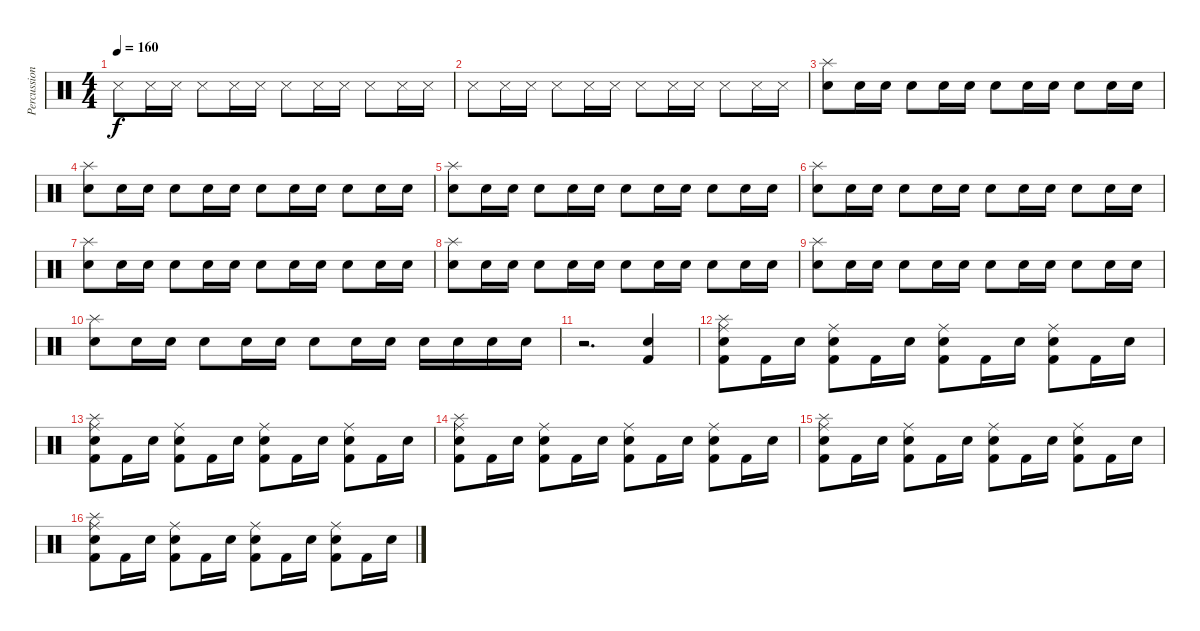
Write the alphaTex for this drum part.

\track ("Percussions" "Percussion") {instrument percussion}
\staff {score}
\articulation defaults
\ts (4 4)
\tempo 160
\clef neutral
\ks c "Snare (side stick) 3".8{dy f} "Snare (side stick) 3".16 "Snare (side stick) 3".16 "Snare (side stick) 3".8 "Snare (side stick) 3".16 "Snare (side stick) 3".16 "Snare (side stick) 3".8 "Snare (side stick) 3".16 "Snare (side stick) 3".16 "Snare (side stick) 3".8 "Snare (side stick) 3".16 "Snare (side stick) 3".16
|
"Snare (side stick) 3".8 "Snare (side stick) 3".16 "Snare (side stick) 3".16 "Snare (side stick) 3".8 "Snare (side stick) 3".16 "Snare (side stick) 3".16 "Snare (side stick) 3".8 "Snare (side stick) 3".16 "Snare (side stick) 3".16 "Snare (side stick) 3".8 "Snare (side stick) 3".16 "Snare (side stick) 3".16 |
("Splash (hit)" "Electric Snare (hit)").8 "Electric Snare (hit)".16 "Electric Snare (hit)".16 "Electric Snare (hit)".8 "Electric Snare (hit)".16 "Electric Snare (hit)".16 "Electric Snare (hit)".8 "Electric Snare (hit)".16 "Electric Snare (hit)".16 "Electric Snare (hit)".8 "Electric Snare (hit)".16 "Electric Snare (hit)".16 |
("Splash (hit)" "Electric Snare (hit)").8 "Electric Snare (hit)".16 "Electric Snare (hit)".16 "Electric Snare (hit)".8 "Electric Snare (hit)".16 "Electric Snare (hit)".16 "Electric Snare (hit)".8 "Electric Snare (hit)".16 "Electric Snare (hit)".16 "Electric Snare (hit)".8 "Electric Snare (hit)".16 "Electric Snare (hit)".16 |
("Splash (hit)" "Electric Snare (hit)").8 "Electric Snare (hit)".16 "Electric Snare (hit)".16 "Electric Snare (hit)".8 "Electric Snare (hit)".16 "Electric Snare (hit)".16 "Electric Snare (hit)".8 "Electric Snare (hit)".16 "Electric Snare (hit)".16 "Electric Snare (hit)".8 "Electric Snare (hit)".16 "Electric Snare (hit)".16 |
("Splash (hit)" "Electric Snare (hit)").8 "Electric Snare (hit)".16 "Electric Snare (hit)".16 "Electric Snare (hit)".8 "Electric Snare (hit)".16 "Electric Snare (hit)".16 "Electric Snare (hit)".8 "Electric Snare (hit)".16 "Electric Snare (hit)".16 "Electric Snare (hit)".8 "Electric Snare (hit)".16 "Electric Snare (hit)".16 |
("Splash (hit)" "Electric Snare (hit)").8 "Electric Snare (hit)".16 "Electric Snare (hit)".16 "Electric Snare (hit)".8 "Electric Snare (hit)".16 "Electric Snare (hit)".16 "Electric Snare (hit)".8 "Electric Snare (hit)".16 "Electric Snare (hit)".16 "Electric Snare (hit)".8 "Electric Snare (hit)".16 "Electric Snare (hit)".16 |
("Splash (hit)" "Electric Snare (hit)").8 "Electric Snare (hit)".16 "Electric Snare (hit)".16 "Electric Snare (hit)".8 "Electric Snare (hit)".16 "Electric Snare (hit)".16 "Electric Snare (hit)".8 "Electric Snare (hit)".16 "Electric Snare (hit)".16 "Electric Snare (hit)".8 "Electric Snare (hit)".16 "Electric Snare (hit)".16 |
("Splash (hit)" "Electric Snare (hit)").8 "Electric Snare (hit)".16 "Electric Snare (hit)".16 "Electric Snare (hit)".8 "Electric Snare (hit)".16 "Electric Snare (hit)".16 "Electric Snare (hit)".8 "Electric Snare (hit)".16 "Electric Snare (hit)".16 "Electric Snare (hit)".8 "Electric Snare (hit)".16 "Electric Snare (hit)".16 |
("Splash (hit)" "Electric Snare (hit)").8 "Electric Snare (hit)".16 "Electric Snare (hit)".16 "Electric Snare (hit)".8 "Electric Snare (hit)".16 "Electric Snare (hit)".16 "Electric Snare (hit)".8 "Electric Snare (hit)".16 "Electric Snare (hit)".16 "Electric Snare (hit)".16 "Electric Snare (hit)".16 "Electric Snare (hit)".16 "Electric Snare (hit)".16 |
r.2{d} ("Kick (hit) 2" "Electric Snare (hit)").4 |
("Ride (middle)" "Splash (hit)" "Electric Snare (hit)" "Kick (hit) 2").8 "Kick (hit) 2".16 "Electric Snare (hit)".16 ("Kick (hit) 2" "Ride (middle)" "Electric Snare (hit)").8 "Kick (hit) 2".16 "Electric Snare (hit)".16 ("Kick (hit) 2" "Ride (middle)" "Electric Snare (hit)").8 "Kick (hit) 2".16 "Electric Snare (hit)".16 ("Electric Snare (hit)" "Ride (middle)" "Kick (hit) 2").8 "Kick (hit) 2".16 "Electric Snare (hit)".16 |
("Ride (middle)" "Splash (hit)" "Electric Snare (hit)" "Kick (hit) 2").8 "Kick (hit) 2".16 "Electric Snare (hit)".16 ("Kick (hit) 2" "Ride (middle)" "Electric Snare (hit)").8 "Kick (hit) 2".16 "Electric Snare (hit)".16 ("Kick (hit) 2" "Ride (middle)" "Electric Snare (hit)").8 "Kick (hit) 2".16 "Electric Snare (hit)".16 ("Electric Snare (hit)" "Ride (middle)" "Kick (hit) 2").8 "Kick (hit) 2".16 "Electric Snare (hit)".16 |
("Ride (middle)" "Splash (hit)" "Electric Snare (hit)" "Kick (hit) 2").8 "Kick (hit) 2".16 "Electric Snare (hit)".16 ("Kick (hit) 2" "Ride (middle)" "Electric Snare (hit)").8 "Kick (hit) 2".16 "Electric Snare (hit)".16 ("Kick (hit) 2" "Ride (middle)" "Electric Snare (hit)").8 "Kick (hit) 2".16 "Electric Snare (hit)".16 ("Electric Snare (hit)" "Ride (middle)" "Kick (hit) 2").8 "Kick (hit) 2".16 "Electric Snare (hit)".16 |
("Ride (middle)" "Splash (hit)" "Electric Snare (hit)" "Kick (hit) 2").8 "Kick (hit) 2".16 "Electric Snare (hit)".16 ("Kick (hit) 2" "Ride (middle)" "Electric Snare (hit)").8 "Kick (hit) 2".16 "Electric Snare (hit)".16 ("Kick (hit) 2" "Ride (middle)" "Electric Snare (hit)").8 "Kick (hit) 2".16 "Electric Snare (hit)".16 ("Electric Snare (hit)" "Ride (middle)" "Kick (hit) 2").8 "Kick (hit) 2".16 "Electric Snare (hit)".16 |
("Ride (middle)" "Splash (hit)" "Electric Snare (hit)" "Kick (hit) 2").8 "Kick (hit) 2".16 "Electric Snare (hit)".16 ("Kick (hit) 2" "Ride (middle)" "Electric Snare (hit)").8 "Kick (hit) 2".16 "Electric Snare (hit)".16 ("Kick (hit) 2" "Ride (middle)" "Electric Snare (hit)").8 "Kick (hit) 2".16 "Electric Snare (hit)".16 ("Electric Snare (hit)" "Ride (middle)" "Kick (hit) 2").8 "Kick (hit) 2".16 "Electric Snare (hit)".16
